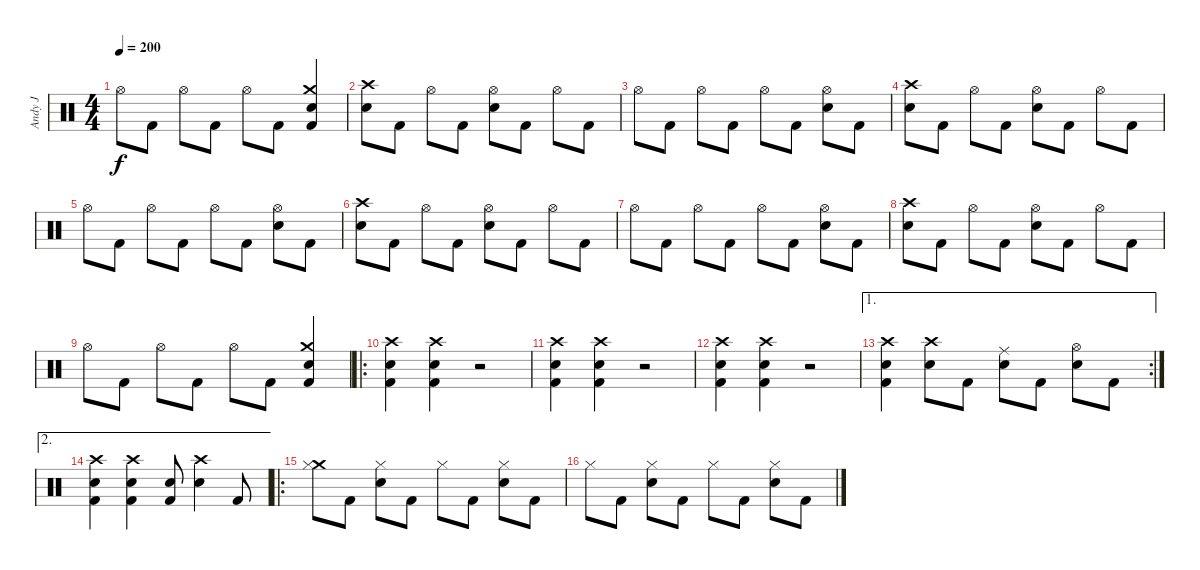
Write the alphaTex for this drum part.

\track ("Andy J" "Andy J") {instrument percussion}
\staff {score}
\articulation defaults
\ts (4 4)
\tempo 200
\clef neutral
\ks c "Hi-Hat (open)".8{dy f} "Kick (hit) 2".8 "Hi-Hat (open)".8 "Kick (hit) 2".8 "Hi-Hat (open)".8 "Kick (hit) 2".8
("Crash medium (hit)" "Electric Snare (hit)" "Kick (hit) 2").4 |
("Crash high (hit)" "Electric Snare (hit)").8 "Kick (hit) 2".8 "Hi-Hat (open)".8 "Kick (hit) 2".8 ("Hi-Hat (open)" "Electric Snare (hit)").8 "Kick (hit) 2".8 "Hi-Hat (open)".8 "Kick (hit) 2".8 |
"Hi-Hat (open)".8 "Kick (hit) 2".8 "Hi-Hat (open)".8 "Kick (hit) 2".8 "Hi-Hat (open)".8 "Kick (hit) 2".8 ("Hi-Hat (open)" "Electric Snare (hit)").8 "Kick (hit) 2".8 |
("Crash high (hit)" "Electric Snare (hit)").8 "Kick (hit) 2".8 "Hi-Hat (open)".8 "Kick (hit) 2".8 ("Hi-Hat (open)" "Electric Snare (hit)").8 "Kick (hit) 2".8 "Hi-Hat (open)".8 "Kick (hit) 2".8 |
"Hi-Hat (open)".8 "Kick (hit) 2".8 "Hi-Hat (open)".8 "Kick (hit) 2".8 "Hi-Hat (open)".8 "Kick (hit) 2".8 ("Hi-Hat (open)" "Electric Snare (hit)").8 "Kick (hit) 2".8 |
("Crash high (hit)" "Electric Snare (hit)").8 "Kick (hit) 2".8 "Hi-Hat (open)".8 "Kick (hit) 2".8 ("Hi-Hat (open)" "Electric Snare (hit)").8 "Kick (hit) 2".8 "Hi-Hat (open)".8 "Kick (hit) 2".8 |
"Hi-Hat (open)".8 "Kick (hit) 2".8 "Hi-Hat (open)".8 "Kick (hit) 2".8 "Hi-Hat (open)".8 "Kick (hit) 2".8 ("Hi-Hat (open)" "Electric Snare (hit)").8 "Kick (hit) 2".8 |
("Crash high (hit)" "Electric Snare (hit)").8 "Kick (hit) 2".8 "Hi-Hat (open)".8 "Kick (hit) 2".8 ("Hi-Hat (open)" "Electric Snare (hit)").8 "Kick (hit) 2".8 "Hi-Hat (open)".8 "Kick (hit) 2".8 |
"Hi-Hat (open)".8 "Kick (hit) 2".8 "Hi-Hat (open)".8 "Kick (hit) 2".8 "Hi-Hat (open)".8 "Kick (hit) 2".8 ("Crash medium (hit)" "Electric Snare (hit)" "Kick (hit) 2").4 |
\ro
("Crash high (hit)" "Electric Snare (hit)" "Kick (hit) 2").4 ("Crash high (hit)" "Electric Snare (hit)" "Kick (hit) 2").4 r.2 |
("Crash high (hit)" "Electric Snare (hit)" "Kick (hit) 2").4 ("Crash high (hit)" "Electric Snare (hit)" "Kick (hit) 2").4 r.2 |
("Crash high (hit)" "Electric Snare (hit)" "Kick (hit) 2").4 ("Crash high (hit)" "Electric Snare (hit)" "Kick (hit) 2").4 r.2 |
\ae 1
\rc 2
("Crash high (hit)" "Electric Snare (hit)" "Kick (hit) 2").4 ("Crash high (hit)" "Electric Snare (hit)").8 "Kick (hit) 2".8 ("Ride (middle)" "Electric Snare (hit)").8 "Kick (hit) 2".8 ("Hi-Hat (open)" "Electric Snare (hit)").8 "Kick (hit) 2".8 |
\ae 2
("Crash high (hit)" "Electric Snare (hit)" "Kick (hit) 2").4 ("Crash high (hit)" "Electric Snare (hit)" "Kick (hit) 2").4 ("Electric Snare (hit)" "Kick (hit) 2").8 ("Crash high (hit)" "Electric Snare (hit)").4 "Kick (hit) 2".8 |
\ro
("Crash medium (hit)" "Hi-Hat (closed)").8 "Kick (hit) 2".8 ("Hi-Hat (closed)" "Electric Snare (hit)").8 "Kick (hit) 2".8 "Hi-Hat (closed)".8 "Kick (hit) 2".8 ("Hi-Hat (closed)" "Electric Snare (hit)").8 "Kick (hit) 2".8 |
"Hi-Hat (closed)".8 "Kick (hit) 2".8 ("Hi-Hat (closed)" "Electric Snare (hit)").8 "Kick (hit) 2".8 "Hi-Hat (closed)".8 "Kick (hit) 2".8 ("Hi-Hat (closed)" "Electric Snare (hit)").8 "Kick (hit) 2".8
